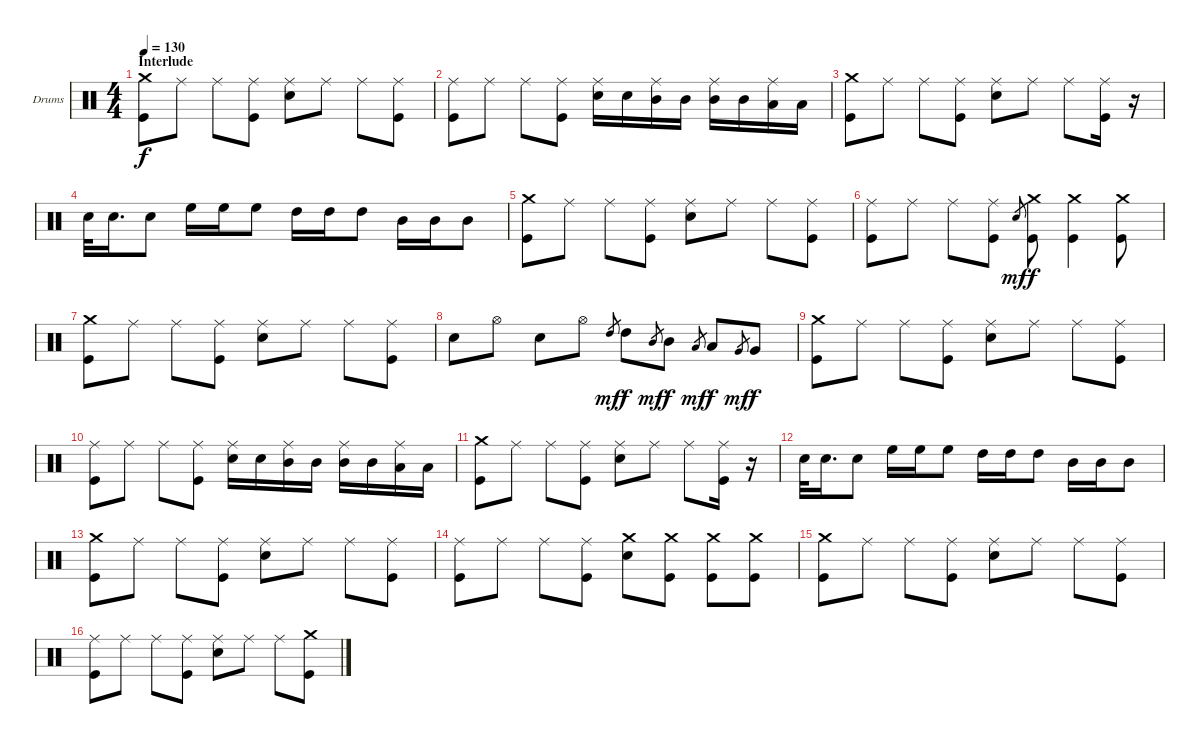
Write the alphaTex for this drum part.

\bracketExtendMode groupsimilarinstruments
\firstSystemTrackNameOrientation horizontal
\otherSystemsTrackNameOrientation horizontal
\track ("Drums" "Drums") {instrument percussion}
\staff {score}
\articulation defaults
\ts (4 4)
\section ("" "Interlude")
\tempo 130
\clef neutral
\ks c
("Crash medium (hit)" "Kick (hit)").8{dy f} "Ride (middle)".8 "Ride (middle)".8 ("Ride (middle)" "Kick (hit)").8 ("Ride (middle)" "Snare (hit) 2").8 "Ride (middle)".8 "Ride (middle)".8 ("Ride (middle)" "Kick (hit)").8 |
("Ride (middle)" "Kick (hit)").8 "Ride (middle)".8 "Ride (middle)".8 ("Ride (middle)" "Kick (hit)").8 ("Ride (middle)" "Snare (hit) 2").16 "Snare (hit) 2".16 ("Ride (middle)" "Mid Tom (hit)").16 "Mid Tom (hit)".16 ("Ride (middle)" "Mid Tom (hit)").16 "Mid Tom (hit)".16 ("Ride (middle)" "Low Tom (hit)").16 "Low Tom (hit)".16 |
("Crash medium (hit)" "Kick (hit)").8 "Ride (middle)".8 "Ride (middle)".8 ("Ride (middle)" "Kick (hit)").8 ("Ride (middle)" "Snare (hit) 2").8 "Ride (middle)".8 "Ride (middle)".8 ("Ride (middle)" "Kick (hit)").16 r.16 |
"Snare (hit) 2".32 "Snare (hit) 2".16{d} "Snare (hit) 2".8 "High Floor Tom (hit)".16 "High Floor Tom (hit)".16 "High Floor Tom (hit)".8 "High Tom (hit)".16 "High Tom (hit)".16 "High Tom (hit)".8 "Mid Tom (hit)".16 "Mid Tom (hit)".16 "Mid Tom (hit)".8 |
("Crash medium (hit)" "Kick (hit)").8 "Ride (middle)".8 "Ride (middle)".8 ("Ride (middle)" "Kick (hit)").8 ("Ride (middle)" "Snare (hit) 2").8 "Ride (middle)".8 "Ride (middle)".8 ("Ride (middle)" "Kick (hit)").8 |
("Ride (middle)" "Kick (hit)").8 "Ride (middle)".8 "Ride (middle)".8 ("Ride (middle)" "Kick (hit)").8 "Snare (hit) 2".8{gr dy mf} ("Crash medium (hit)" "Kick (hit)").8{dy f} ("Crash medium (hit)" "Kick (hit)").4 ("Crash medium (hit)" "Kick (hit)").8 |
("Crash medium (hit)" "Kick (hit)").8 "Ride (middle)".8 "Ride (middle)".8 ("Ride (middle)" "Kick (hit)").8 ("Ride (middle)" "Snare (hit) 2").8 "Ride (middle)".8 "Ride (middle)".8 ("Ride (middle)" "Kick (hit)").8 |
"Snare (hit) 2".8 "Hi-Hat (open)".8 "Snare (hit) 2".8 "Hi-Hat (open)".8 "High Tom (hit)".8{gr dy mf} "High Tom (hit)".8{dy f} "Mid Tom (hit)".8{gr dy mf} "Mid Tom (hit)".8{dy f} "Low Tom (hit)".8{gr dy mf} "Low Tom (hit)".8{dy f} "Very Low Tom (hit)".8{gr dy mf} "Very Low Tom (hit)".8{dy f} |
("Crash medium (hit)" "Kick (hit)").8 "Ride (middle)".8 "Ride (middle)".8 ("Ride (middle)" "Kick (hit)").8 ("Ride (middle)" "Snare (hit) 2").8 "Ride (middle)".8 "Ride (middle)".8 ("Ride (middle)" "Kick (hit)").8 |
("Ride (middle)" "Kick (hit)").8 "Ride (middle)".8 "Ride (middle)".8 ("Ride (middle)" "Kick (hit)").8 ("Ride (middle)" "Snare (hit) 2").16 "Snare (hit) 2".16 ("Ride (middle)" "Mid Tom (hit)").16 "Mid Tom (hit)".16 ("Ride (middle)" "Mid Tom (hit)").16 "Mid Tom (hit)".16 ("Ride (middle)" "Low Tom (hit)").16 "Low Tom (hit)".16 |
("Crash medium (hit)" "Kick (hit)").8 "Ride (middle)".8 "Ride (middle)".8 ("Ride (middle)" "Kick (hit)").8 ("Ride (middle)" "Snare (hit) 2").8 "Ride (middle)".8 "Ride (middle)".8 ("Ride (middle)" "Kick (hit)").16 r.16 |
"Snare (hit) 2".32 "Snare (hit) 2".16{d} "Snare (hit) 2".8 "High Floor Tom (hit)".16 "High Floor Tom (hit)".16 "High Floor Tom (hit)".8 "High Tom (hit)".16 "High Tom (hit)".16 "High Tom (hit)".8 "Mid Tom (hit)".16 "Mid Tom (hit)".16 "Mid Tom (hit)".8 |
("Crash medium (hit)" "Kick (hit)").8 "Ride (middle)".8 "Ride (middle)".8 ("Ride (middle)" "Kick (hit)").8 ("Ride (middle)" "Snare (hit) 2").8 "Ride (middle)".8 "Ride (middle)".8 ("Ride (middle)" "Kick (hit)").8 |
("Ride (middle)" "Kick (hit)").8 "Ride (middle)".8 "Ride (middle)".8 ("Ride (middle)" "Kick (hit)").8 ("Crash medium (hit)" "Snare (hit) 2").8 ("Crash medium (hit)" "Kick (hit)").8 ("Crash medium (hit)" "Kick (hit)").8 ("Crash medium (hit)" "Kick (hit)").8 |
("Crash medium (hit)" "Kick (hit)").8 "Ride (middle)".8 "Ride (middle)".8 ("Ride (middle)" "Kick (hit)").8 ("Ride (middle)" "Snare (hit) 2").8 "Ride (middle)".8 "Ride (middle)".8 ("Ride (middle)" "Kick (hit)").8 |
("Ride (middle)" "Kick (hit)").8 "Ride (middle)".8 "Ride (middle)".8 ("Ride (middle)" "Kick (hit)").8 ("Ride (middle)" "Snare (hit) 2").8 "Ride (middle)".8 "Ride (middle)".8 ("Crash medium (hit)" "Kick (hit)").8
